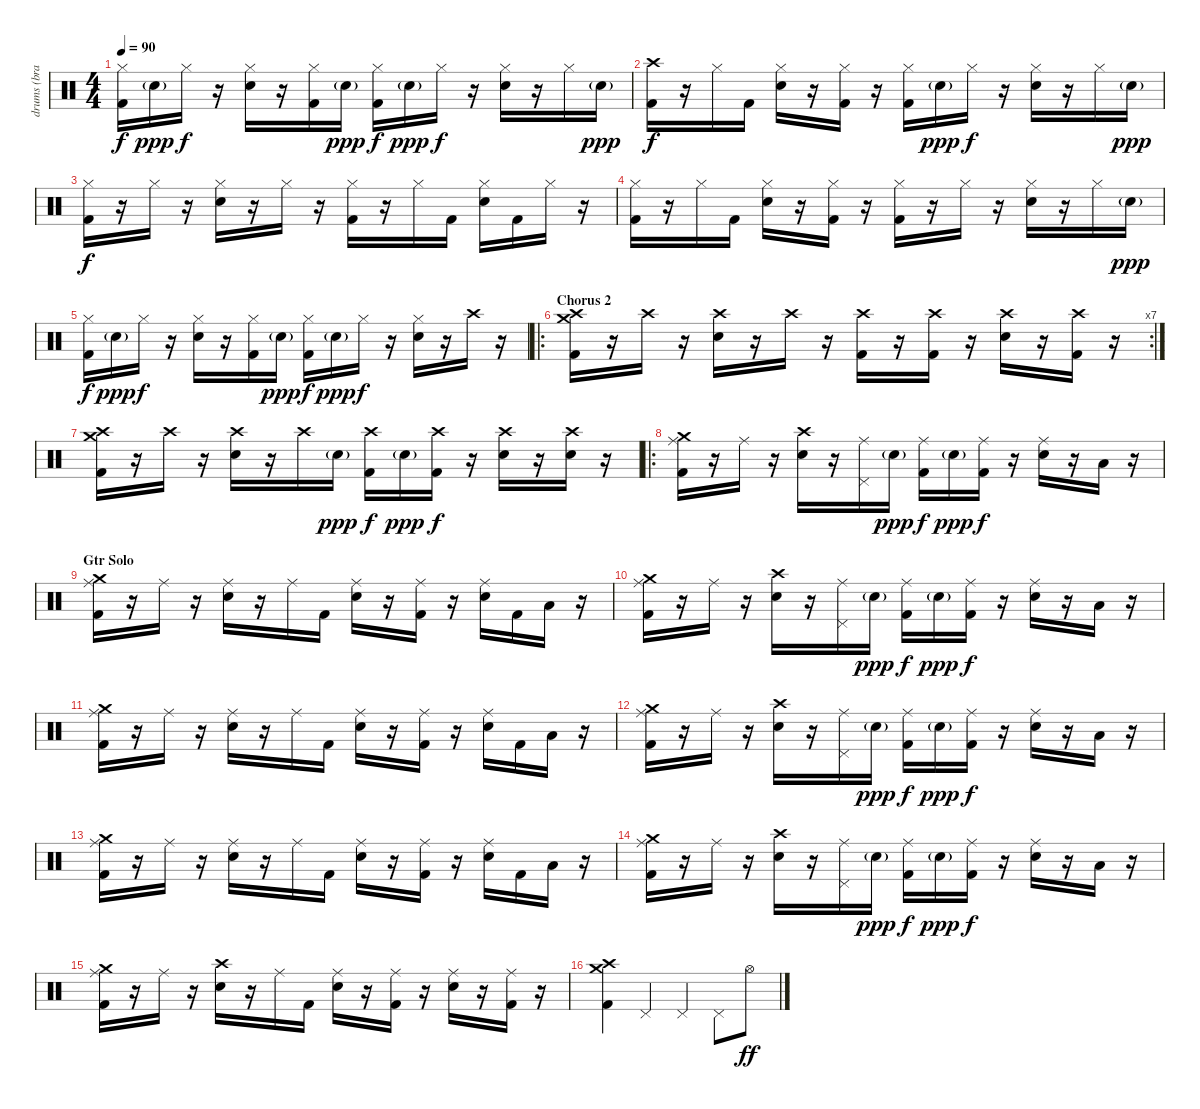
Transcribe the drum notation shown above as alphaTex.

\track ("drums (brad wilk)" "drums (bra") {instrument percussion}
\staff {score}
\articulation defaults
\ts (4 4)
\tempo 90
\clef neutral
\ks c
("Hi-Hat (closed)" "Kick (hit) 2").16{dy f} "Electric Snare (hit)"{g}.16{dy ppp} "Hi-Hat (closed)".16{dy f} r.16 ("Hi-Hat (closed)" "Electric Snare (hit)").16 r.16 ("Hi-Hat (closed)" "Kick (hit) 2").16 "Electric Snare (hit)"{g}.16{dy ppp} ("Hi-Hat (closed)" "Kick (hit) 2").16{dy f} "Electric Snare (hit)"{g}.16{dy ppp} "Hi-Hat (closed)".16{dy f} r.16 ("Hi-Hat (closed)" "Electric Snare (hit)").16 r.16 "Hi-Hat (closed)".16 "Electric Snare (hit)"{g}.16{dy ppp} |
("Crash high (hit)" "Kick (hit) 2").16{dy f} r.16 "Hi-Hat (closed)".16 "Kick (hit) 2".16 ("Hi-Hat (closed)" "Electric Snare (hit)").16 r.16 ("Hi-Hat (closed)" "Kick (hit) 2").16 r.16 ("Hi-Hat (closed)" "Kick (hit) 2").16 "Electric Snare (hit)"{g}.16{dy ppp} "Hi-Hat (closed)".16{dy f} r.16 ("Hi-Hat (closed)" "Electric Snare (hit)").16 r.16 "Hi-Hat (closed)".16 "Electric Snare (hit)"{g}.16{dy ppp} |
("Hi-Hat (closed)" "Kick (hit) 2").16{dy f} r.16 "Hi-Hat (closed)".16 r.16 ("Hi-Hat (closed)" "Electric Snare (hit)").16 r.16 "Hi-Hat (closed)".16 r.16 ("Hi-Hat (closed)" "Kick (hit) 2").16 r.16 "Hi-Hat (closed)".16 "Kick (hit) 2".16 ("Hi-Hat (closed)" "Electric Snare (hit)").16 "Kick (hit) 2".16 "Hi-Hat (closed)".16 r.16 |
("Hi-Hat (closed)" "Kick (hit) 2").16 r.16 "Hi-Hat (closed)".16 "Kick (hit) 2".16 ("Hi-Hat (closed)" "Electric Snare (hit)").16 r.16 ("Hi-Hat (closed)" "Kick (hit) 2").16 r.16 ("Hi-Hat (closed)" "Kick (hit) 2").16 r.16 "Hi-Hat (closed)".16 r.16 ("Hi-Hat (closed)" "Electric Snare (hit)").16 r.16 "Hi-Hat (closed)".16 "Electric Snare (hit)"{g}.16{dy ppp} |
("Hi-Hat (closed)" "Kick (hit) 2").16{dy f} "Electric Snare (hit)"{g}.16{dy ppp} "Hi-Hat (closed)".16{dy f} r.16 ("Hi-Hat (closed)" "Electric Snare (hit)").16 r.16 ("Hi-Hat (closed)" "Kick (hit) 2").16 "Electric Snare (hit)"{g}.16{dy ppp} ("Hi-Hat (closed)" "Kick (hit) 2").16{dy f} "Electric Snare (hit)"{g}.16{dy ppp} "Hi-Hat (closed)".16{dy f} r.16 ("Hi-Hat (closed)" "Electric Snare (hit)").16 r.16 "Crash high (hit)".16 r.16 |
\ro
\rc 7
\section ("" "Chorus 2")
("Crash medium (hit)" "Crash high (hit)" "Kick (hit) 2").16 r.16 "Crash high (hit)".16 r.16 ("Crash high (hit)" "Electric Snare (hit)").16 r.16 "Crash high (hit)".16 r.16 ("Crash high (hit)" "Kick (hit) 2").16 r.16 ("Crash high (hit)" "Kick (hit) 2").16 r.16 ("Crash high (hit)" "Electric Snare (hit)").16 r.16 ("Crash high (hit)" "Kick (hit) 2").16 r.16 |
("Crash medium (hit)" "Crash high (hit)" "Kick (hit) 2").16 r.16 "Crash high (hit)".16 r.16 ("Crash high (hit)" "Electric Snare (hit)").16 r.16 "Crash high (hit)".16 "Electric Snare (hit)"{g}.16{dy ppp} ("Crash high (hit)" "Kick (hit) 2").16{dy f} "Electric Snare (hit)"{g}.16{dy ppp} ("Crash high (hit)" "Kick (hit) 2").16{dy f} r.16 ("Crash high (hit)" "Electric Snare (hit)").16 r.16 ("Crash high (hit)" "Electric Snare (hit)").16 r.16 |
\ro
("Ride (middle)" "Crash medium (hit)" "Kick (hit) 2").16 r.16 "Ride (middle)".16 r.16 ("Crash high (hit)" "Electric Snare (hit)").16 r.16 ("Ride (middle)" "Pedal Hi-Hat (hit)").16 "Electric Snare (hit)"{g}.16{dy ppp} ("Ride (middle)" "Kick (hit) 2").16{dy f} "Electric Snare (hit)"{g}.16{dy ppp} ("Ride (middle)" "Kick (hit) 2").16{dy f} r.16 ("Ride (middle)" "Electric Snare (hit)").16 r.16 "Low Floor Tom (hit)".16 r.16 |
\section ("" "Gtr Solo")
("Ride (middle)" "Crash medium (hit)" "Kick (hit) 2").16 r.16 "Ride (middle)".16 r.16 ("Ride (middle)" "Electric Snare (hit)").16 r.16 "Ride (middle)".16 "Kick (hit) 2".16 ("Ride (middle)" "Electric Snare (hit)").16 r.16 ("Ride (middle)" "Kick (hit) 2").16 r.16 ("Ride (middle)" "Electric Snare (hit)").16 "Kick (hit) 2".16 "Low Floor Tom (hit)".16 r.16 |
("Ride (middle)" "Crash medium (hit)" "Kick (hit) 2").16 r.16 "Ride (middle)".16 r.16 ("Crash high (hit)" "Electric Snare (hit)").16 r.16 ("Ride (middle)" "Pedal Hi-Hat (hit)").16 "Electric Snare (hit)"{g}.16{dy ppp} ("Ride (middle)" "Kick (hit) 2").16{dy f} "Electric Snare (hit)"{g}.16{dy ppp} ("Ride (middle)" "Kick (hit) 2").16{dy f} r.16 ("Ride (middle)" "Electric Snare (hit)").16 r.16 "Low Floor Tom (hit)".16 r.16 |
("Ride (middle)" "Crash medium (hit)" "Kick (hit) 2").16 r.16 "Ride (middle)".16 r.16 ("Ride (middle)" "Electric Snare (hit)").16 r.16 "Ride (middle)".16 "Kick (hit) 2".16 ("Ride (middle)" "Electric Snare (hit)").16 r.16 ("Ride (middle)" "Kick (hit) 2").16 r.16 ("Ride (middle)" "Electric Snare (hit)").16 "Kick (hit) 2".16 "Low Floor Tom (hit)".16 r.16 |
("Ride (middle)" "Crash medium (hit)" "Kick (hit) 2").16 r.16 "Ride (middle)".16 r.16 ("Crash high (hit)" "Electric Snare (hit)").16 r.16 ("Ride (middle)" "Pedal Hi-Hat (hit)").16 "Electric Snare (hit)"{g}.16{dy ppp} ("Ride (middle)" "Kick (hit) 2").16{dy f} "Electric Snare (hit)"{g}.16{dy ppp} ("Ride (middle)" "Kick (hit) 2").16{dy f} r.16 ("Ride (middle)" "Electric Snare (hit)").16 r.16 "Low Floor Tom (hit)".16 r.16 |
("Ride (middle)" "Crash medium (hit)" "Kick (hit) 2").16 r.16 "Ride (middle)".16 r.16 ("Ride (middle)" "Electric Snare (hit)").16 r.16 "Ride (middle)".16 "Kick (hit) 2".16 ("Ride (middle)" "Electric Snare (hit)").16 r.16 ("Ride (middle)" "Kick (hit) 2").16 r.16 ("Ride (middle)" "Electric Snare (hit)").16 "Kick (hit) 2".16 "Low Floor Tom (hit)".16 r.16 |
("Ride (middle)" "Crash medium (hit)" "Kick (hit) 2").16 r.16 "Ride (middle)".16 r.16 ("Crash high (hit)" "Electric Snare (hit)").16 r.16 ("Ride (middle)" "Pedal Hi-Hat (hit)").16 "Electric Snare (hit)"{g}.16{dy ppp} ("Ride (middle)" "Kick (hit) 2").16{dy f} "Electric Snare (hit)"{g}.16{dy ppp} ("Ride (middle)" "Kick (hit) 2").16{dy f} r.16 ("Ride (middle)" "Electric Snare (hit)").16 r.16 "Low Floor Tom (hit)".16 r.16 |
("Ride (middle)" "Crash medium (hit)" "Kick (hit) 2").16 r.16 "Ride (middle)".16 r.16 ("Crash high (hit)" "Electric Snare (hit)").16 r.16 "Ride (middle)".16 "Kick (hit) 2".16 ("Ride (middle)" "Electric Snare (hit)").16 r.16 ("Ride (middle)" "Kick (hit) 2").16 r.16 ("Ride (middle)" "Electric Snare (hit)").16 r.16 ("Ride (middle)" "Kick (hit) 2").16 r.16 |
("Crash medium (hit)" "Crash high (hit)" "Kick (hit) 2").4 "Pedal Hi-Hat (hit)".4 "Pedal Hi-Hat (hit)".4 "Pedal Hi-Hat (hit)".8 "Hi-Hat (open)".8{dy ff}
